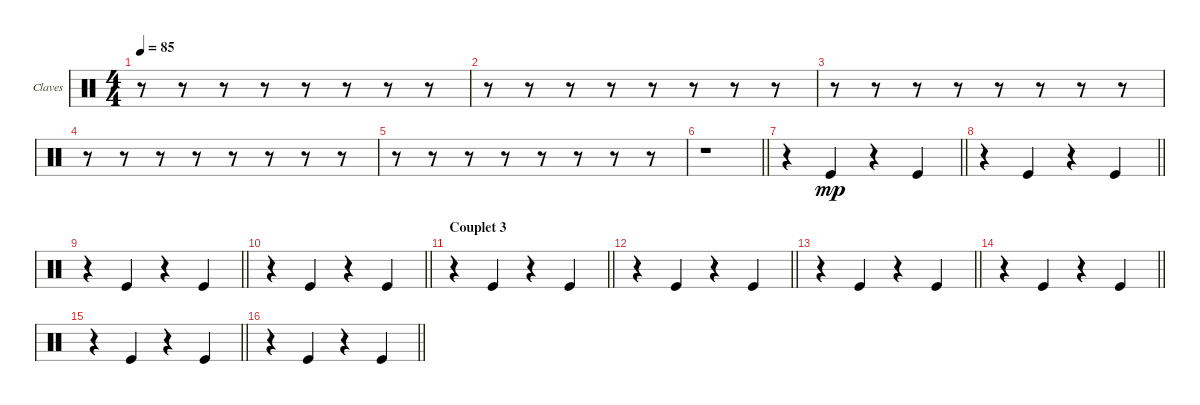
\bracketExtendMode groupsimilarinstruments
\firstSystemTrackNameOrientation horizontal
\otherSystemsTrackNameOrientation horizontal
\chordDiagramsInScore
\track ("Claves" "Claves") {instrument percussion}
\staff {score}
\articulation defaults
\ts (4 4)
\tempo 85
\clef neutral
\ks c
r.8{dy mp} r.8 r.8 r.8 r.8 r.8 r.8 r.8 |
r.8 r.8 r.8 r.8 r.8 r.8 r.8 r.8 |
r.8 r.8 r.8 r.8 r.8 r.8 r.8 r.8 |
r.8 r.8 r.8 r.8 r.8 r.8 r.8 r.8 |
r.8 r.8 r.8 r.8 r.8 r.8 r.8 r.8 |
\barLineRight lightlight
r.1 |
\barLineRight lightlight
r.4 "Kick (hit)".4 r.4 "Kick (hit)".4 |
\barLineRight lightlight
r.4 "Kick (hit)".4 r.4 "Kick (hit)".4 |
\barLineRight lightlight
r.4 "Kick (hit)".4 r.4 "Kick (hit)".4 |
\barLineRight lightlight
r.4 "Kick (hit)".4 r.4 "Kick (hit)".4 |
\section ("" "Couplet 3")
\barLineRight lightlight
r.4 "Kick (hit)".4 r.4 "Kick (hit)".4 |
\barLineRight lightlight
r.4 "Kick (hit)".4 r.4 "Kick (hit)".4 |
\barLineRight lightlight
r.4 "Kick (hit)".4 r.4 "Kick (hit)".4 |
\barLineRight lightlight
r.4 "Kick (hit)".4 r.4 "Kick (hit)".4 |
\barLineRight lightlight
r.4 "Kick (hit)".4 r.4 "Kick (hit)".4 |
\barLineRight lightlight
r.4 "Kick (hit)".4 r.4 "Kick (hit)".4
